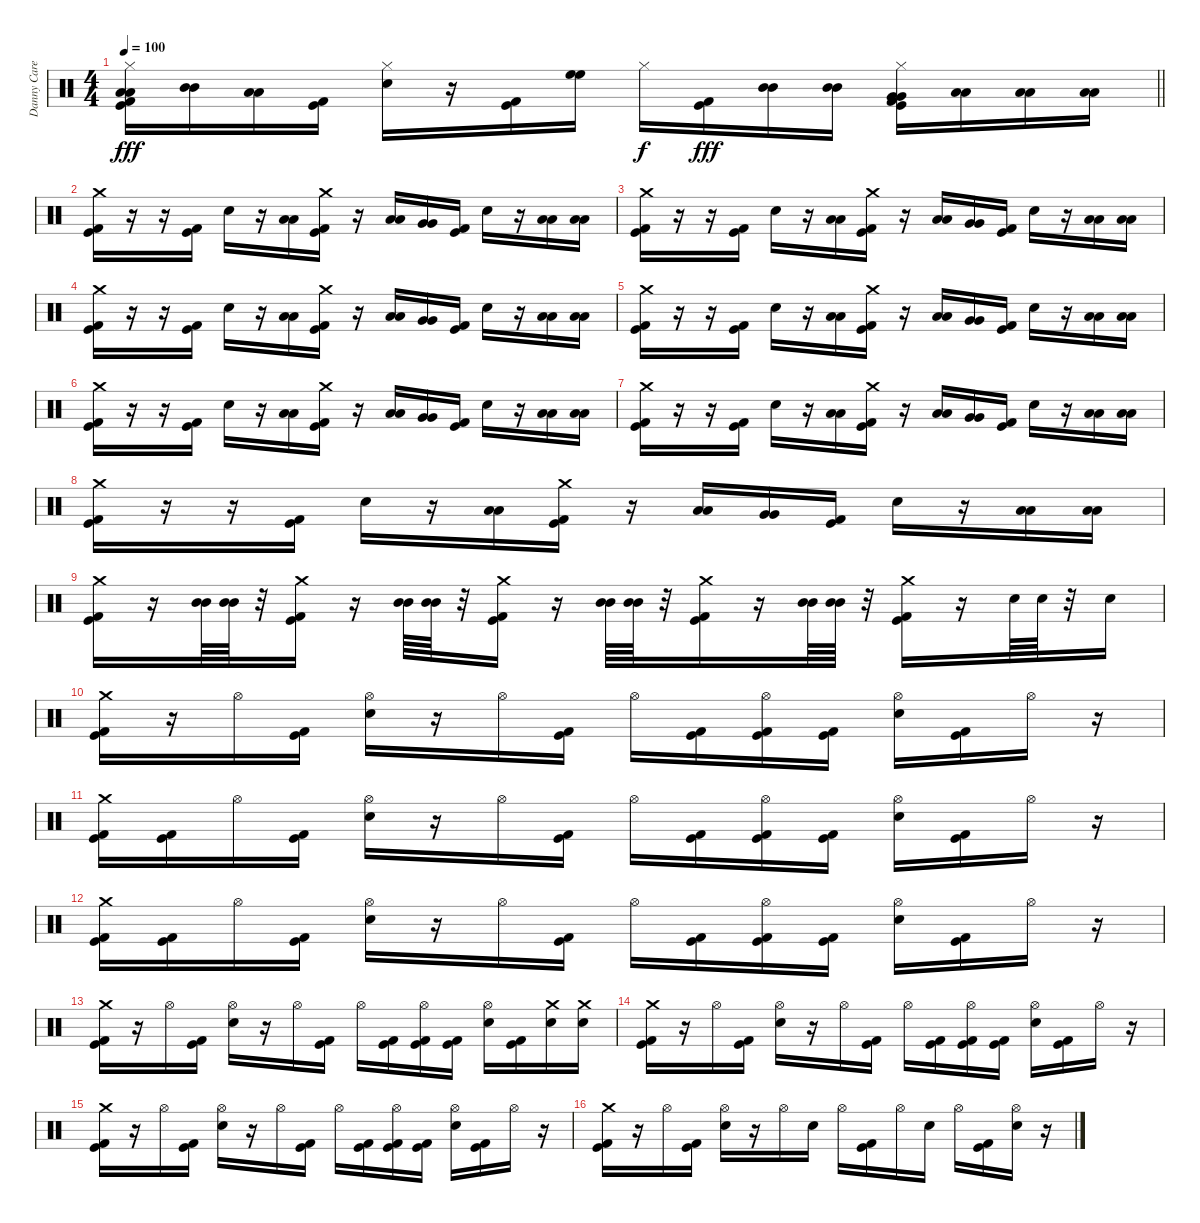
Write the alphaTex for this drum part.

\track ("Danny Carey" "Danny Care") {instrument percussion}
\staff {score}
\articulation defaults
\ts (4 4)
\tempo 100
\clef neutral
\barLineRight lightlight
\ks c
("Hi-Hat (closed)" "Low Tom (hit)" "Low Tom (hit)" "Kick (hit)" "Kick (hit) 2").16{dy fff} ("Mid Tom (hit)" "Mid Tom (hit)").16 ("Low Floor Tom (hit)" "Low Floor Tom (hit)").16 ("Kick (hit)" "Kick (hit) 2").16 ("Hi-Hat (closed)" "Electric Snare (hit)").16 r.16 ("Kick (hit)" "Kick (hit) 2").16 ("High Floor Tom (hit)" "High Floor Tom (hit)").16 "Hi-Hat (closed)".16{dy f} ("Kick (hit)" "Kick (hit) 2").16{dy fff} ("Mid Tom (hit)" "Mid Tom (hit)").16 ("Mid Tom (hit)" "Mid Tom (hit)").16 ("Hi-Hat (closed)" "Very Low Tom (hit)" "Very Low Tom (hit)" "Kick (hit)" "Kick (hit) 2").16 ("Low Tom (hit)" "Low Tom (hit)").16 ("Low Tom (hit)" "Low Tom (hit)").16 ("Low Tom (hit)" "Low Tom (hit)").16 |
("Crash medium (hit)" "Kick (hit)" "Kick (hit) 2").16 r.16 r.16 ("Kick (hit)" "Kick (hit) 2").16 "Electric Snare (hit)".16 r.16 ("Low Tom (hit)" "Low Tom (hit)").16 ("Crash medium (hit)" "Kick (hit)" "Kick (hit) 2").16 r.16 ("Low Tom (hit)" "Low Tom (hit)").16 ("Very Low Tom (hit)" "Very Low Tom (hit)").16 ("Kick (hit)" "Kick (hit) 2").16 "Electric Snare (hit)".16 r.16 ("Low Tom (hit)" "Low Tom (hit)").16 ("Low Tom (hit)" "Low Tom (hit)").16 |
("Crash medium (hit)" "Kick (hit)" "Kick (hit) 2").16 r.16 r.16 ("Kick (hit)" "Kick (hit) 2").16 "Electric Snare (hit)".16 r.16 ("Low Tom (hit)" "Low Tom (hit)").16 ("Crash medium (hit)" "Kick (hit)" "Kick (hit) 2").16 r.16 ("Low Tom (hit)" "Low Tom (hit)").16 ("Very Low Tom (hit)" "Very Low Tom (hit)").16 ("Kick (hit)" "Kick (hit) 2").16 "Electric Snare (hit)".16 r.16 ("Low Tom (hit)" "Low Tom (hit)").16 ("Low Tom (hit)" "Low Tom (hit)").16 |
("Crash medium (hit)" "Kick (hit)" "Kick (hit) 2").16 r.16 r.16 ("Kick (hit)" "Kick (hit) 2").16 "Electric Snare (hit)".16 r.16 ("Low Tom (hit)" "Low Tom (hit)").16 ("Crash medium (hit)" "Kick (hit)" "Kick (hit) 2").16 r.16 ("Low Tom (hit)" "Low Tom (hit)").16 ("Very Low Tom (hit)" "Very Low Tom (hit)").16 ("Kick (hit)" "Kick (hit) 2").16 "Electric Snare (hit)".16 r.16 ("Low Tom (hit)" "Low Tom (hit)").16 ("Low Tom (hit)" "Low Tom (hit)").16 |
("Crash medium (hit)" "Kick (hit)" "Kick (hit) 2").16 r.16 r.16 ("Kick (hit)" "Kick (hit) 2").16 "Electric Snare (hit)".16 r.16 ("Low Tom (hit)" "Low Tom (hit)").16 ("Crash medium (hit)" "Kick (hit)" "Kick (hit) 2").16 r.16 ("Low Tom (hit)" "Low Tom (hit)").16 ("Very Low Tom (hit)" "Very Low Tom (hit)").16 ("Kick (hit)" "Kick (hit) 2").16 "Electric Snare (hit)".16 r.16 ("Low Tom (hit)" "Low Tom (hit)").16 ("Low Tom (hit)" "Low Tom (hit)").16 |
("Crash medium (hit)" "Kick (hit)" "Kick (hit) 2").16 r.16 r.16 ("Kick (hit)" "Kick (hit) 2").16 "Electric Snare (hit)".16 r.16 ("Low Tom (hit)" "Low Tom (hit)").16 ("Crash medium (hit)" "Kick (hit)" "Kick (hit) 2").16 r.16 ("Low Tom (hit)" "Low Tom (hit)").16 ("Very Low Tom (hit)" "Very Low Tom (hit)").16 ("Kick (hit)" "Kick (hit) 2").16 "Electric Snare (hit)".16 r.16 ("Low Tom (hit)" "Low Tom (hit)").16 ("Low Tom (hit)" "Low Tom (hit)").16 |
("Crash medium (hit)" "Kick (hit)" "Kick (hit) 2").16 r.16 r.16 ("Kick (hit)" "Kick (hit) 2").16 "Electric Snare (hit)".16 r.16 ("Low Tom (hit)" "Low Tom (hit)").16 ("Crash medium (hit)" "Kick (hit)" "Kick (hit) 2").16 r.16 ("Low Tom (hit)" "Low Tom (hit)").16 ("Very Low Tom (hit)" "Very Low Tom (hit)").16 ("Kick (hit)" "Kick (hit) 2").16 "Electric Snare (hit)".16 r.16 ("Low Tom (hit)" "Low Tom (hit)").16 ("Low Tom (hit)" "Low Tom (hit)").16 |
("Crash medium (hit)" "Kick (hit)" "Kick (hit) 2").16 r.16 r.16 ("Kick (hit)" "Kick (hit) 2").16 "Electric Snare (hit)".16 r.16 ("Low Tom (hit)" "Low Tom (hit)").16 ("Crash medium (hit)" "Kick (hit)" "Kick (hit) 2").16 r.16 ("Low Tom (hit)" "Low Tom (hit)").16 ("Very Low Tom (hit)" "Very Low Tom (hit)").16 ("Kick (hit)" "Kick (hit) 2").16 "Electric Snare (hit)".16 r.16 ("Low Tom (hit)" "Low Tom (hit)").16 ("Low Tom (hit)" "Low Tom (hit)").16 |
("Crash medium (hit)" "Kick (hit)" "Kick (hit) 2").16 r.16 ("Mid Tom (hit)" "Mid Tom (hit)").64 ("Mid Tom (hit)" "Mid Tom (hit)").64 r.32 ("Crash medium (hit)" "Kick (hit)" "Kick (hit) 2").16 r.16 ("Mid Tom (hit)" "Mid Tom (hit)").64 ("Mid Tom (hit)" "Mid Tom (hit)").64 r.32 ("Crash medium (hit)" "Kick (hit)" "Kick (hit) 2").16 r.16 ("Mid Tom (hit)" "Mid Tom (hit)").64 ("Mid Tom (hit)" "Mid Tom (hit)").64 r.32 ("Crash medium (hit)" "Kick (hit)" "Kick (hit) 2").16 r.16 ("Mid Tom (hit)" "Mid Tom (hit)").64 ("Mid Tom (hit)" "Mid Tom (hit)").64 r.32 ("Crash medium (hit)" "Kick (hit)" "Kick (hit) 2").16 r.16 "Electric Snare (hit)".64 "Electric Snare (hit)".64 r.32 "Electric Snare (hit)".16 |
("Crash medium (hit)" "Kick (hit)" "Kick (hit) 2").16 r.16 "Hi-Hat (open)".16 ("Kick (hit)" "Kick (hit) 2").16 ("Hi-Hat (open)" "Electric Snare (hit)").16 r.16 "Hi-Hat (open)".16 ("Kick (hit)" "Kick (hit) 2").16 "Hi-Hat (open)".16 ("Kick (hit)" "Kick (hit) 2").16 ("Hi-Hat (open)" "Kick (hit)" "Kick (hit) 2").16 ("Kick (hit)" "Kick (hit) 2").16 ("Hi-Hat (open)" "Electric Snare (hit)").16 ("Kick (hit)" "Kick (hit) 2").16 "Hi-Hat (open)".16 r.16 |
("Crash medium (hit)" "Kick (hit)" "Kick (hit) 2").16 ("Kick (hit)" "Kick (hit) 2").16 "Hi-Hat (open)".16 ("Kick (hit)" "Kick (hit) 2").16 ("Hi-Hat (open)" "Electric Snare (hit)").16 r.16 "Hi-Hat (open)".16 ("Kick (hit)" "Kick (hit) 2").16 "Hi-Hat (open)".16 ("Kick (hit)" "Kick (hit) 2").16 ("Hi-Hat (open)" "Kick (hit)" "Kick (hit) 2").16 ("Kick (hit)" "Kick (hit) 2").16 ("Hi-Hat (open)" "Electric Snare (hit)").16 ("Kick (hit)" "Kick (hit) 2").16 "Hi-Hat (open)".16 r.16 |
("Crash medium (hit)" "Kick (hit)" "Kick (hit) 2").16 ("Kick (hit)" "Kick (hit) 2").16 "Hi-Hat (open)".16 ("Kick (hit)" "Kick (hit) 2").16 ("Hi-Hat (open)" "Electric Snare (hit)").16 r.16 "Hi-Hat (open)".16 ("Kick (hit)" "Kick (hit) 2").16 "Hi-Hat (open)".16 ("Kick (hit)" "Kick (hit) 2").16 ("Hi-Hat (open)" "Kick (hit)" "Kick (hit) 2").16 ("Kick (hit)" "Kick (hit) 2").16 ("Hi-Hat (open)" "Electric Snare (hit)").16 ("Kick (hit)" "Kick (hit) 2").16 "Hi-Hat (open)".16 r.16 |
("Crash medium (hit)" "Kick (hit)" "Kick (hit) 2").16 r.16 "Hi-Hat (open)".16 ("Kick (hit)" "Kick (hit) 2").16 ("Hi-Hat (open)" "Electric Snare (hit)").16 r.16 "Hi-Hat (open)".16 ("Kick (hit)" "Kick (hit) 2").16 "Hi-Hat (open)".16 ("Kick (hit)" "Kick (hit) 2").16 ("Hi-Hat (open)" "Kick (hit)" "Kick (hit) 2").16 ("Kick (hit)" "Kick (hit) 2").16 ("Hi-Hat (open)" "Electric Snare (hit)").16 ("Kick (hit)" "Kick (hit) 2").16 ("Crash medium (hit)" "Electric Snare (hit)").16 ("Crash medium (hit)" "Electric Snare (hit)").16 |
("Crash medium (hit)" "Kick (hit)" "Kick (hit) 2").16 r.16 "Hi-Hat (open)".16 ("Kick (hit)" "Kick (hit) 2").16 ("Hi-Hat (open)" "Electric Snare (hit)").16 r.16 "Hi-Hat (open)".16 ("Kick (hit)" "Kick (hit) 2").16 "Hi-Hat (open)".16 ("Kick (hit)" "Kick (hit) 2").16 ("Hi-Hat (open)" "Kick (hit)" "Kick (hit) 2").16 ("Kick (hit)" "Kick (hit) 2").16 ("Hi-Hat (open)" "Electric Snare (hit)").16 ("Kick (hit)" "Kick (hit) 2").16 "Hi-Hat (open)".16 r.16 |
("Crash medium (hit)" "Kick (hit)" "Kick (hit) 2").16 r.16 "Hi-Hat (open)".16 ("Kick (hit)" "Kick (hit) 2").16 ("Hi-Hat (open)" "Electric Snare (hit)").16 r.16 "Hi-Hat (open)".16 ("Kick (hit)" "Kick (hit) 2").16 "Hi-Hat (open)".16 ("Kick (hit)" "Kick (hit) 2").16 ("Hi-Hat (open)" "Kick (hit)" "Kick (hit) 2").16 ("Kick (hit)" "Kick (hit) 2").16 ("Hi-Hat (open)" "Electric Snare (hit)").16 ("Kick (hit)" "Kick (hit) 2").16 "Hi-Hat (open)".16 r.16 |
("Crash medium (hit)" "Kick (hit)" "Kick (hit) 2").16 r.16 "Hi-Hat (open)".16 ("Kick (hit)" "Kick (hit) 2").16 ("Hi-Hat (open)" "Electric Snare (hit)").16 r.16 "Hi-Hat (open)".16 "Electric Snare (hit)".16 "Hi-Hat (open)".16 ("Kick (hit)" "Kick (hit) 2").16 "Hi-Hat (open)".16 "Electric Snare (hit)".16 "Hi-Hat (open)".16 ("Kick (hit)" "Kick (hit) 2").16 ("Hi-Hat (open)" "Electric Snare (hit)").16 r.16
